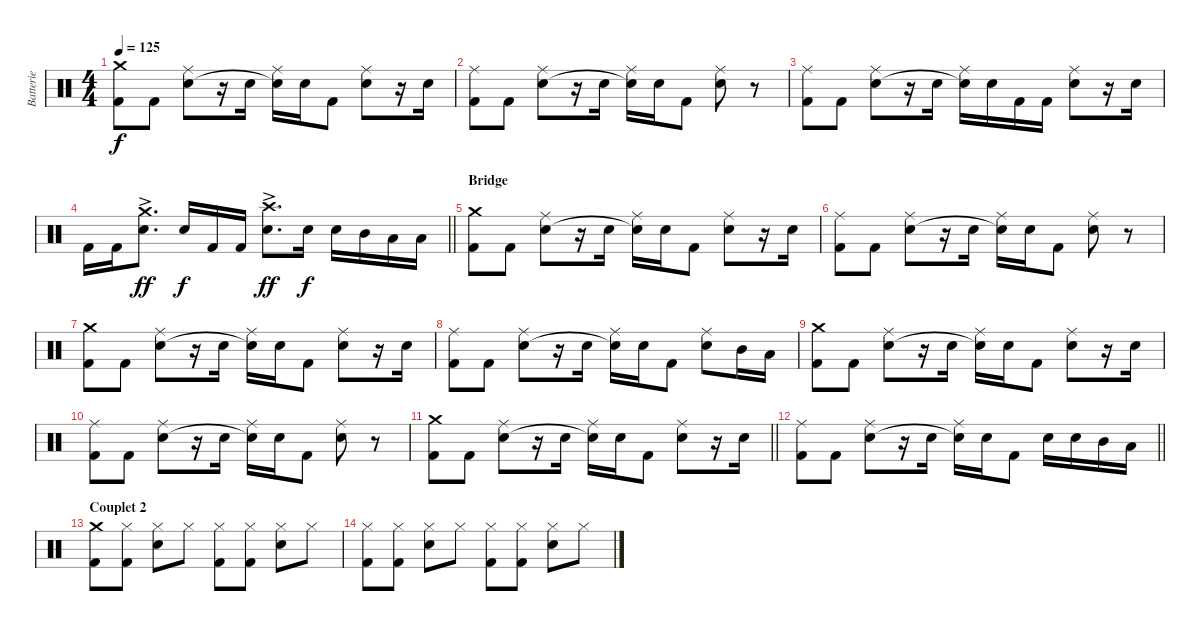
\track ("Batterie" "Batterie") {instrument percussion}
\staff {score}
\articulation defaults
\ts (4 4)
\tempo 125
\clef neutral
\ks c
("Crash medium (hit)" "Kick (hit) 2").8{dy f} "Kick (hit) 2".8 ("Ride (middle)" "Electric Snare (hit)").8 r.16 "Electric Snare (hit)".16 ("Ride (middle)" "Electric Snare (hit)"{t}).16 "Electric Snare (hit)".16 "Kick (hit) 2".8 ("Ride (middle)" "Electric Snare (hit)").8 r.16 "Electric Snare (hit)".16 |
("Ride (middle)" "Kick (hit) 2").8 "Kick (hit) 2".8 ("Ride (middle)" "Electric Snare (hit)").8 r.16 "Electric Snare (hit)".16 ("Ride (middle)" "Electric Snare (hit)"{t}).16 "Electric Snare (hit)".16 "Kick (hit) 2".8 ("Ride (middle)" "Electric Snare (hit)").8 r.8 |
("Ride (middle)" "Kick (hit) 2").8 "Kick (hit) 2".8 ("Ride (middle)" "Electric Snare (hit)").8 r.16 "Electric Snare (hit)".16 ("Ride (middle)" "Electric Snare (hit)"{t}).16 "Electric Snare (hit)".16 "Kick (hit) 2".16 "Kick (hit) 2".16 ("Ride (middle)" "Electric Snare (hit)").8 r.16 "Electric Snare (hit)".16 |
\barLineRight lightlight "Kick (hit) 2".16 "Kick (hit) 2".16
("Crash medium (hit)"{ac} "Electric Snare (hit)").8{d dy ff} "Electric Snare (hit)".16{dy f} "Kick (hit) 2".16 "Kick (hit) 2".16 ("Crash high (hit)"{ac} "Electric Snare (hit)").8{d dy ff} "Electric Snare (hit)".16{dy f} "Electric Snare (hit)".16 "Mid Tom (hit)".16 "Low Tom (hit)".16 "Low Floor Tom (hit)".16 |
\section ("" "Bridge")
("Crash medium (hit)" "Kick (hit) 2").8 "Kick (hit) 2".8 ("Ride (middle)" "Electric Snare (hit)").8 r.16 "Electric Snare (hit)".16 ("Ride (middle)" "Electric Snare (hit)"{t}).16 "Electric Snare (hit)".16 "Kick (hit) 2".8 ("Ride (middle)" "Electric Snare (hit)").8 r.16 "Electric Snare (hit)".16 |
("Ride (middle)" "Kick (hit) 2").8 "Kick (hit) 2".8 ("Ride (middle)" "Electric Snare (hit)").8 r.16 "Electric Snare (hit)".16 ("Ride (middle)" "Electric Snare (hit)"{t}).16 "Electric Snare (hit)".16 "Kick (hit) 2".8 ("Ride (middle)" "Electric Snare (hit)").8 r.8 |
("Crash medium (hit)" "Kick (hit) 2").8 "Kick (hit) 2".8 ("Ride (middle)" "Electric Snare (hit)").8 r.16 "Electric Snare (hit)".16 ("Ride (middle)" "Electric Snare (hit)"{t}).16 "Electric Snare (hit)".16 "Kick (hit) 2".8 ("Ride (middle)" "Electric Snare (hit)").8 r.16 "Electric Snare (hit)".16 |
("Ride (middle)" "Kick (hit) 2").8 "Kick (hit) 2".8 ("Ride (middle)" "Electric Snare (hit)").8 r.16 "Electric Snare (hit)".16 ("Ride (middle)" "Electric Snare (hit)"{t}).16 "Electric Snare (hit)".16 "Kick (hit) 2".8 ("Ride (middle)" "Electric Snare (hit)").8 "Mid Tom (hit)".16 "Low Tom (hit)".16 |
("Crash medium (hit)" "Kick (hit) 2").8 "Kick (hit) 2".8 ("Ride (middle)" "Electric Snare (hit)").8 r.16 "Electric Snare (hit)".16 ("Ride (middle)" "Electric Snare (hit)"{t}).16 "Electric Snare (hit)".16 "Kick (hit) 2".8 ("Ride (middle)" "Electric Snare (hit)").8 r.16 "Electric Snare (hit)".16 |
("Ride (middle)" "Kick (hit) 2").8 "Kick (hit) 2".8 ("Ride (middle)" "Electric Snare (hit)").8 r.16 "Electric Snare (hit)".16 ("Ride (middle)" "Electric Snare (hit)"{t}).16 "Electric Snare (hit)".16 "Kick (hit) 2".8 ("Ride (middle)" "Electric Snare (hit)").8 r.8 |
\barLineRight lightlight
("Crash medium (hit)" "Kick (hit) 2").8 "Kick (hit) 2".8 ("Ride (middle)" "Electric Snare (hit)").8 r.16 "Electric Snare (hit)".16 ("Ride (middle)" "Electric Snare (hit)"{t}).16 "Electric Snare (hit)".16 "Kick (hit) 2".8 ("Ride (middle)" "Electric Snare (hit)").8 r.16 "Electric Snare (hit)".16 |
\barLineRight lightlight
("Ride (middle)" "Kick (hit) 2").8 "Kick (hit) 2".8 ("Ride (middle)" "Electric Snare (hit)").8 r.16 "Electric Snare (hit)".16 ("Ride (middle)" "Electric Snare (hit)"{t}).16 "Electric Snare (hit)".16 "Kick (hit) 2".8 "Electric Snare (hit)".16 "Electric Snare (hit)".16 "Mid Tom (hit)".16 "Low Tom (hit)".16 |
\section ("" "Couplet 2")
("Crash medium (hit)" "Kick (hit) 2").8 ("Hi-Hat (closed)" "Kick (hit) 2").8 ("Hi-Hat (closed)" "Electric Snare (hit)").8 "Hi-Hat (closed)".8 ("Hi-Hat (closed)" "Kick (hit) 2").8 ("Hi-Hat (closed)" "Kick (hit) 2").8 ("Hi-Hat (closed)" "Electric Snare (hit)").8 "Hi-Hat (closed)".8 |
("Hi-Hat (closed)" "Kick (hit) 2").8 ("Hi-Hat (closed)" "Kick (hit) 2").8 ("Hi-Hat (closed)" "Electric Snare (hit)").8 "Hi-Hat (closed)".8 ("Hi-Hat (closed)" "Kick (hit) 2").8 ("Hi-Hat (closed)" "Kick (hit) 2").8 ("Hi-Hat (closed)" "Electric Snare (hit)").8 "Hi-Hat (closed)".8
